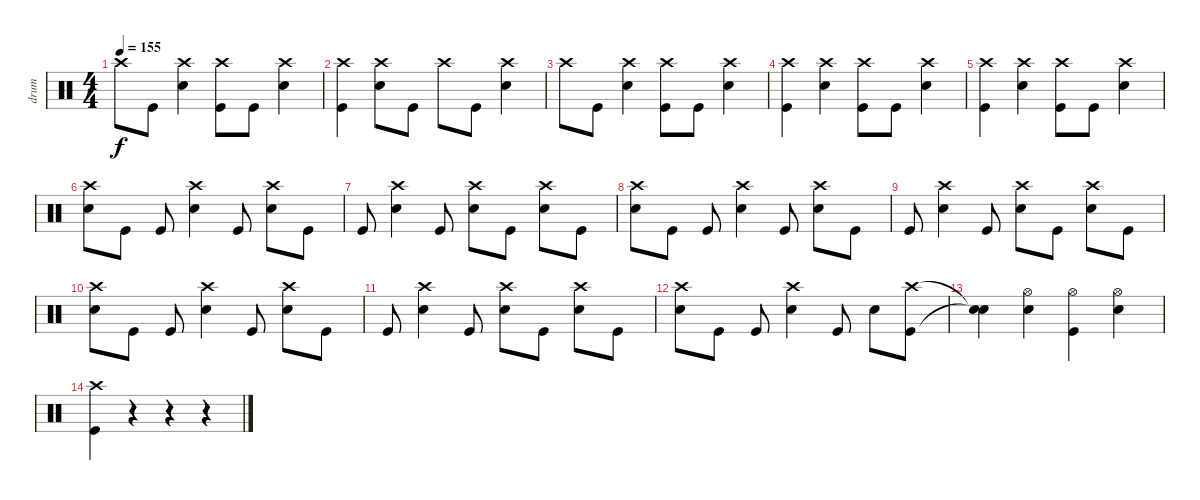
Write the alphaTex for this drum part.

\track ("drum" "drum") {instrument percussion}
\staff {score}
\articulation defaults
\ts (4 4)
\tempo 155
\clef neutral
\ks c "Crash high (hit)".8{dy f} "Kick (hit)".8
("Crash high (hit)" "Snare (hit) 2").4 ("Crash high (hit)" "Kick (hit)").8 "Kick (hit)".8 ("Crash high (hit)" "Snare (hit) 2").4 |
("Crash high (hit)" "Kick (hit)").4 ("Crash high (hit)" "Snare (hit) 2").8 "Kick (hit)".8 "Crash high (hit)".8 "Kick (hit)".8 ("Crash high (hit)" "Snare (hit) 2").4 |
"Crash high (hit)".8 "Kick (hit)".8 ("Crash high (hit)" "Snare (hit) 2").4 ("Crash high (hit)" "Kick (hit)").8 "Kick (hit)".8 ("Crash high (hit)" "Snare (hit) 2").4 |
("Crash high (hit)" "Kick (hit)").4 ("Crash high (hit)" "Snare (hit) 2").4 ("Crash high (hit)" "Kick (hit)").8 "Kick (hit)".8 ("Crash high (hit)" "Snare (hit) 2").4 |
("Crash high (hit)" "Kick (hit)").4 ("Crash high (hit)" "Snare (hit) 2").4 ("Crash high (hit)" "Kick (hit)").8 "Kick (hit)".8 ("Crash high (hit)" "Snare (hit) 2").4 |
("Crash high (hit)" "Snare (hit) 2").8 "Kick (hit)".8 "Kick (hit)".8 ("Crash high (hit)" "Snare (hit) 2").4 "Kick (hit)".8 ("Crash high (hit)" "Snare (hit) 2").8 "Kick (hit)".8 |
"Kick (hit)".8 ("Crash high (hit)" "Snare (hit) 2").4 "Kick (hit)".8 ("Crash high (hit)" "Snare (hit) 2").8 "Kick (hit)".8 ("Crash high (hit)" "Snare (hit) 2").8 "Kick (hit)".8 |
("Crash high (hit)" "Snare (hit) 2").8 "Kick (hit)".8 "Kick (hit)".8 ("Crash high (hit)" "Snare (hit) 2").4 "Kick (hit)".8 ("Crash high (hit)" "Snare (hit) 2").8 "Kick (hit)".8 |
"Kick (hit)".8 ("Crash high (hit)" "Snare (hit) 2").4 "Kick (hit)".8 ("Crash high (hit)" "Snare (hit) 2").8 "Kick (hit)".8 ("Crash high (hit)" "Snare (hit) 2").8 "Kick (hit)".8 |
("Crash high (hit)" "Snare (hit) 2").8 "Kick (hit)".8 "Kick (hit)".8 ("Crash high (hit)" "Snare (hit) 2").4 "Kick (hit)".8 ("Crash high (hit)" "Snare (hit) 2").8 "Kick (hit)".8 |
"Kick (hit)".8 ("Crash high (hit)" "Snare (hit) 2").4 "Kick (hit)".8 ("Crash high (hit)" "Snare (hit) 2").8 "Kick (hit)".8 ("Crash high (hit)" "Snare (hit) 2").8 "Kick (hit)".8 |
("Crash high (hit)" "Snare (hit) 2").8 "Kick (hit)".8 "Kick (hit)".8 ("Crash high (hit)" "Snare (hit) 2").4 "Kick (hit)".8 "Snare (hit) 2".8 ("Crash high (hit)" "Kick (hit)").8 |
("Snare (hit)"{t} "Snare (hit)"{t}).4 ("Hi-Hat (open)" "Snare (hit) 2").4 ("Hi-Hat (open)" "Kick (hit)").4 ("Hi-Hat (open)" "Snare (hit) 2").4 |
("Crash high (hit)" "Kick (hit)").4 r.4{volume 0} r.4 r.4
